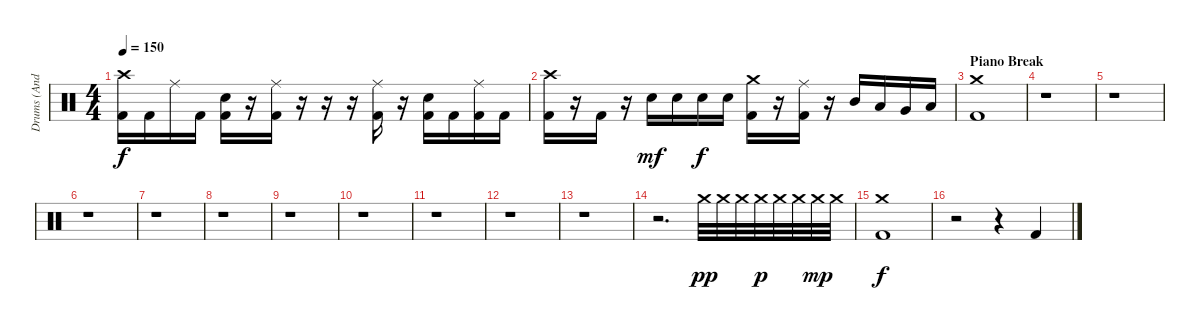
\track ("Drums (Andy C)" "Drums (And") {instrument percussion}
\staff {score}
\articulation defaults
\ts (4 4)
\tempo 150
\clef neutral
\ks c
("Crash high (hit)" "Kick (hit) 2").16{dy f} "Kick (hit) 2".16 "Ride (middle)".16 "Kick (hit) 2".16 ("Kick (hit) 2" "Electric Snare (hit)").16 r.16 ("Ride (middle)" "Kick (hit) 2").16 r.16 r.16 r.16 ("Ride (middle)" "Kick (hit) 2").16 r.16 ("Kick (hit) 2" "Electric Snare (hit)").16 "Kick (hit) 2".16 ("Ride (middle)" "Kick (hit) 2").16 "Kick (hit) 2".16 |
("Crash high (hit)" "Kick (hit) 2").16 r.16 "Kick (hit) 2".16 r.16 "Electric Snare (hit)".16{dy mf} "Electric Snare (hit)".16 "Electric Snare (hit)".16{dy f} "Electric Snare (hit)".16 ("Crash medium (hit)" "Kick (hit) 2").16 r.16 ("Ride (middle)" "Kick (hit) 2").16 r.16 "Mid Tom (hit)".16 "Low Tom (hit)".16 "Very Low Tom (hit)".16 "Low Floor Tom (hit)".16 |
\section ("" "Piano Break")
("Crash medium (hit)" "Kick (hit) 2").1 |
r.1 |
r.1 |
r.1 |
r.1 |
r.1 |
r.1 |
r.1 |
r.1 |
r.1 |
r.1 |
r.2{d} "Crash medium (hit)".32{dy pp} "Crash medium (hit)".32 "Crash medium (hit)".32 "Crash medium (hit)".32{dy p} "Crash medium (hit)".32 "Crash medium (hit)".32 "Crash medium (hit)".32{dy mp} "Crash medium (hit)".32 |
("Crash medium (hit)" "Kick (hit) 2").1{dy f} |
r.2 r.4 "Kick (hit) 2".4
